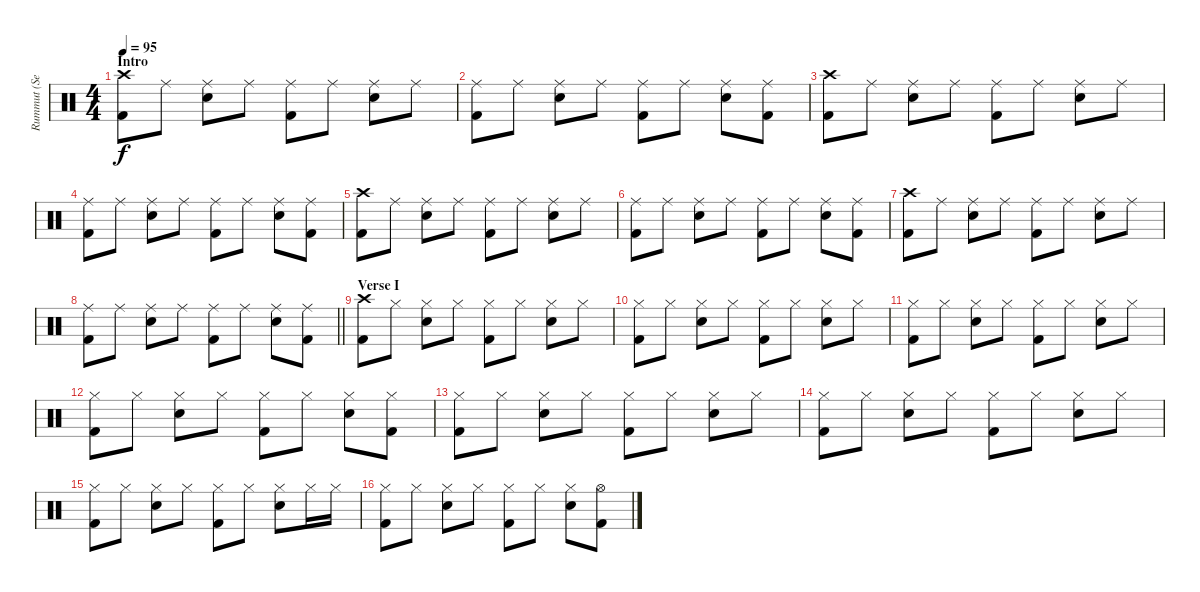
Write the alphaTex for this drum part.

\track ("Rummut (Seppo Pohjolainen)" "Rummut (Se") {instrument percussion}
\staff {score}
\articulation defaults
\ts (4 4)
\section ("" "Intro")
\tempo 95
\clef neutral
\ks c
("Crash high (hit)" "Kick (hit) 2").8{dy f} "Ride (middle)".8 ("Ride (middle)" "Snare (hit) 2").8 "Ride (middle)".8 ("Ride (middle)" "Kick (hit) 2").8 "Ride (middle)".8 ("Ride (middle)" "Snare (hit) 2").8 "Ride (middle)".8 |
("Ride (middle)" "Kick (hit) 2").8 "Ride (middle)".8 ("Ride (middle)" "Snare (hit) 2").8 "Ride (middle)".8 ("Ride (middle)" "Kick (hit) 2").8 "Ride (middle)".8 ("Ride (middle)" "Snare (hit) 2").8 ("Ride (middle)" "Kick (hit) 2").8 |
("Crash high (hit)" "Kick (hit) 2").8 "Ride (middle)".8 ("Ride (middle)" "Snare (hit) 2").8 "Ride (middle)".8 ("Ride (middle)" "Kick (hit) 2").8 "Ride (middle)".8 ("Ride (middle)" "Snare (hit) 2").8 "Ride (middle)".8 |
("Ride (middle)" "Kick (hit) 2").8 "Ride (middle)".8 ("Ride (middle)" "Snare (hit) 2").8 "Ride (middle)".8 ("Ride (middle)" "Kick (hit) 2").8 "Ride (middle)".8 ("Ride (middle)" "Snare (hit) 2").8 ("Ride (middle)" "Kick (hit) 2").8 |
("Crash high (hit)" "Kick (hit) 2").8 "Ride (middle)".8 ("Ride (middle)" "Snare (hit) 2").8 "Ride (middle)".8 ("Ride (middle)" "Kick (hit) 2").8 "Ride (middle)".8 ("Ride (middle)" "Snare (hit) 2").8 "Ride (middle)".8 |
("Ride (middle)" "Kick (hit) 2").8 "Ride (middle)".8 ("Ride (middle)" "Snare (hit) 2").8 "Ride (middle)".8 ("Ride (middle)" "Kick (hit) 2").8 "Ride (middle)".8 ("Ride (middle)" "Snare (hit) 2").8 ("Ride (middle)" "Kick (hit) 2").8 |
("Crash high (hit)" "Kick (hit) 2").8 "Ride (middle)".8 ("Ride (middle)" "Snare (hit) 2").8 "Ride (middle)".8 ("Ride (middle)" "Kick (hit) 2").8 "Ride (middle)".8 ("Ride (middle)" "Snare (hit) 2").8 "Ride (middle)".8 |
\barLineRight lightlight
("Ride (middle)" "Kick (hit) 2").8 "Ride (middle)".8 ("Ride (middle)" "Snare (hit) 2").8 "Ride (middle)".8 ("Ride (middle)" "Kick (hit) 2").8 "Ride (middle)".8 ("Ride (middle)" "Snare (hit) 2").8 ("Ride (middle)" "Kick (hit) 2").8 |
\section ("" "Verse I")
("Crash high (hit)" "Kick (hit) 2").8 "Hi-Hat (closed)".8 ("Hi-Hat (closed)" "Snare (hit) 2").8 "Hi-Hat (closed)".8 ("Hi-Hat (closed)" "Kick (hit) 2").8 "Hi-Hat (closed)".8 ("Hi-Hat (closed)" "Snare (hit) 2").8 "Hi-Hat (closed)".8 |
("Hi-Hat (closed)" "Kick (hit) 2").8 "Hi-Hat (closed)".8 ("Hi-Hat (closed)" "Snare (hit) 2").8 "Hi-Hat (closed)".8 ("Hi-Hat (closed)" "Kick (hit) 2").8 "Hi-Hat (closed)".8 ("Hi-Hat (closed)" "Snare (hit) 2").8 "Hi-Hat (closed)".8 |
("Hi-Hat (closed)" "Kick (hit) 2").8 "Hi-Hat (closed)".8 ("Hi-Hat (closed)" "Snare (hit) 2").8 "Hi-Hat (closed)".8 ("Hi-Hat (closed)" "Kick (hit) 2").8 "Hi-Hat (closed)".8 ("Hi-Hat (closed)" "Snare (hit) 2").8 "Hi-Hat (closed)".8 |
("Hi-Hat (closed)" "Kick (hit) 2").8 "Hi-Hat (closed)".8 ("Hi-Hat (closed)" "Snare (hit) 2").8 "Hi-Hat (closed)".8 ("Hi-Hat (closed)" "Kick (hit) 2").8 "Hi-Hat (closed)".8 ("Hi-Hat (closed)" "Snare (hit) 2").8 ("Hi-Hat (closed)" "Kick (hit) 2").8 |
("Hi-Hat (closed)" "Kick (hit) 2").8 "Hi-Hat (closed)".8 ("Hi-Hat (closed)" "Snare (hit) 2").8 "Hi-Hat (closed)".8 ("Hi-Hat (closed)" "Kick (hit) 2").8 "Hi-Hat (closed)".8 ("Hi-Hat (closed)" "Snare (hit) 2").8 "Hi-Hat (closed)".8 |
("Hi-Hat (closed)" "Kick (hit) 2").8 "Hi-Hat (closed)".8 ("Hi-Hat (closed)" "Snare (hit) 2").8 "Hi-Hat (closed)".8 ("Hi-Hat (closed)" "Kick (hit) 2").8 "Hi-Hat (closed)".8 ("Hi-Hat (closed)" "Snare (hit) 2").8 "Hi-Hat (closed)".8 |
("Hi-Hat (closed)" "Kick (hit) 2").8 "Hi-Hat (closed)".8 ("Hi-Hat (closed)" "Snare (hit) 2").8 "Hi-Hat (closed)".8 ("Hi-Hat (closed)" "Kick (hit) 2").8 "Hi-Hat (closed)".8 ("Hi-Hat (closed)" "Snare (hit) 2").8 "Hi-Hat (closed)".16 "Hi-Hat (closed)".16 |
("Hi-Hat (closed)" "Kick (hit) 2").8 "Hi-Hat (closed)".8 ("Hi-Hat (closed)" "Snare (hit) 2").8 "Hi-Hat (closed)".8 ("Hi-Hat (closed)" "Kick (hit) 2").8 "Hi-Hat (closed)".8 ("Hi-Hat (closed)" "Snare (hit) 2").8 ("Hi-Hat (open)" "Kick (hit) 2").8
